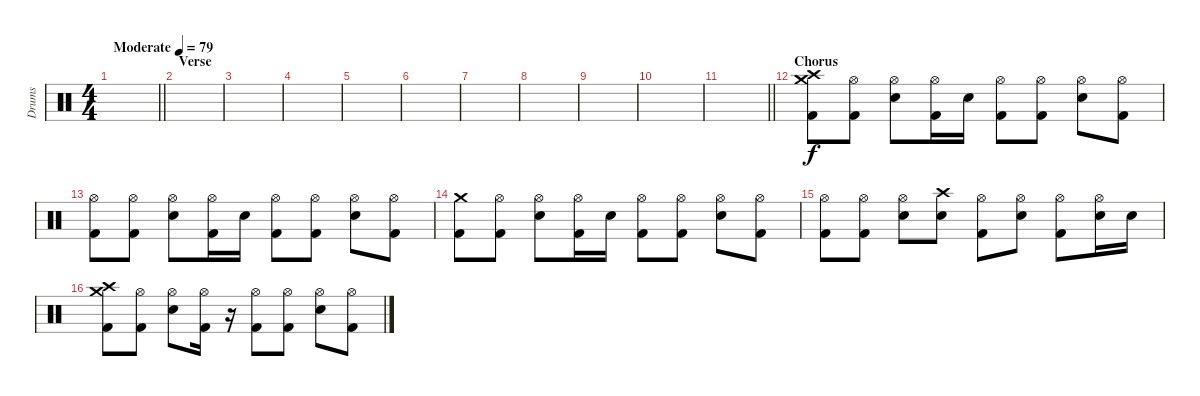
\track ("Drums" "Drums") {instrument percussion}
\staff {score}
\articulation defaults
\ts (4 4)
\tempo (79 "Moderate")
\clef neutral
\barLineRight lightlight
\ks c
|
\section ("" "Verse")
|
|
|
|
|
|
|
|
|
\barLineRight lightlight
|
\section ("" "Chorus")
("Crash high (hit)" "Crash medium (hit)" "Kick (hit) 2").8 ("Hi-Hat (open)" "Kick (hit) 2").8 ("Hi-Hat (open)" "Electric Snare (hit)").8 ("Hi-Hat (open)" "Kick (hit) 2").16 "Electric Snare (hit)".16 ("Hi-Hat (open)" "Kick (hit) 2").8 ("Hi-Hat (open)" "Kick (hit) 2").8 ("Hi-Hat (open)" "Electric Snare (hit)").8 ("Hi-Hat (open)" "Kick (hit) 2").8 |
("Hi-Hat (open)" "Kick (hit) 2").8 ("Hi-Hat (open)" "Kick (hit) 2").8 ("Hi-Hat (open)" "Electric Snare (hit)").8 ("Hi-Hat (open)" "Kick (hit) 2").16 "Electric Snare (hit)".16 ("Hi-Hat (open)" "Kick (hit) 2").8 ("Hi-Hat (open)" "Kick (hit) 2").8 ("Hi-Hat (open)" "Electric Snare (hit)").8 ("Hi-Hat (open)" "Kick (hit) 2").8 |
("Crash medium (hit)" "Kick (hit) 2").8 ("Hi-Hat (open)" "Kick (hit) 2").8 ("Hi-Hat (open)" "Electric Snare (hit)").8 ("Hi-Hat (open)" "Kick (hit) 2").16 "Electric Snare (hit)".16 ("Hi-Hat (open)" "Kick (hit) 2").8 ("Hi-Hat (open)" "Kick (hit) 2").8 ("Hi-Hat (open)" "Electric Snare (hit)").8 ("Hi-Hat (open)" "Kick (hit) 2").8 |
("Hi-Hat (open)" "Kick (hit) 2").8 ("Hi-Hat (open)" "Kick (hit) 2").8 ("Hi-Hat (open)" "Electric Snare (hit)").8 ("Crash high (hit)" "Electric Snare (hit)").8 ("Hi-Hat (open)" "Kick (hit) 2").8 ("Hi-Hat (open)" "Electric Snare (hit)").8 ("Hi-Hat (open)" "Kick (hit) 2").8 ("Hi-Hat (open)" "Electric Snare (hit)").16 "Electric Snare (hit)".16 |
("Crash high (hit)" "Crash medium (hit)" "Kick (hit) 2").8 ("Hi-Hat (open)" "Kick (hit) 2").8 ("Hi-Hat (open)" "Electric Snare (hit)").8 ("Hi-Hat (open)" "Kick (hit) 2").16 r.16 ("Hi-Hat (open)" "Kick (hit) 2").8 ("Hi-Hat (open)" "Kick (hit) 2").8 ("Hi-Hat (open)" "Electric Snare (hit)").8 ("Hi-Hat (open)" "Kick (hit) 2").8
